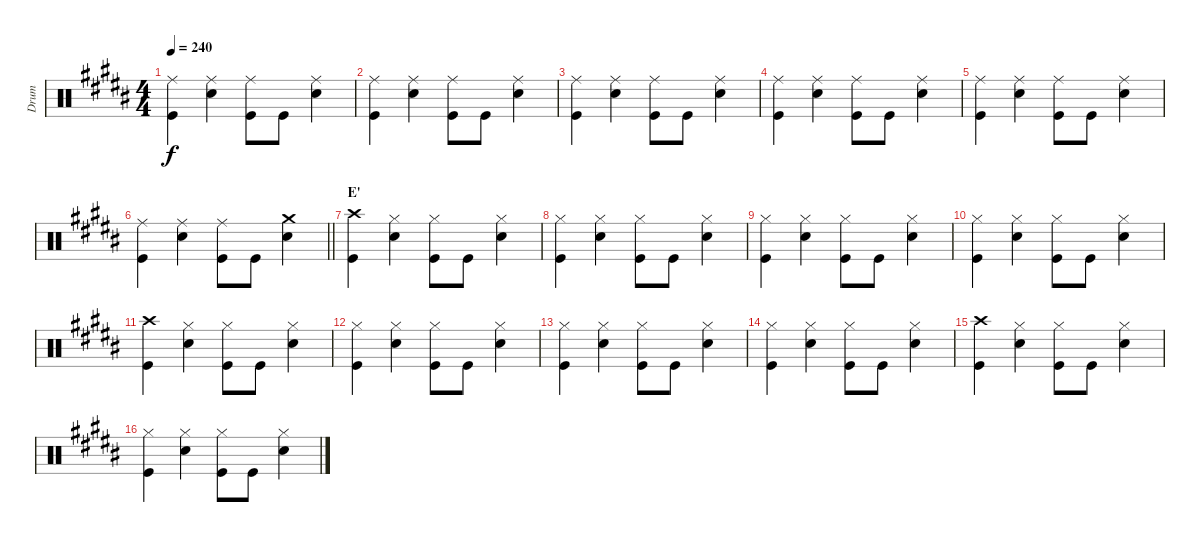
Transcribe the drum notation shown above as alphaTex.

\track ("Drum" "Drum") {instrument percussion}
\staff {score}
\articulation defaults
\ts (4 4)
\tempo 240
\clef neutral
\ks b
("Kick (hit)" "Ride (middle)").4{dy f} ("Ride (middle)" "Snare (hit) 2").4 ("Ride (middle)" "Kick (hit)").8 "Kick (hit)".8 ("Snare (hit) 2" "Ride (middle)").4 |
("Kick (hit)" "Ride (middle)").4 ("Ride (middle)" "Snare (hit) 2").4 ("Ride (middle)" "Kick (hit)").8 "Kick (hit)".8 ("Snare (hit) 2" "Ride (middle)").4 |
("Kick (hit)" "Ride (middle)").4 ("Ride (middle)" "Snare (hit) 2").4 ("Ride (middle)" "Kick (hit)").8 "Kick (hit)".8 ("Snare (hit) 2" "Ride (middle)").4 |
("Kick (hit)" "Ride (middle)").4 ("Ride (middle)" "Snare (hit) 2").4 ("Ride (middle)" "Kick (hit)").8 "Kick (hit)".8 ("Snare (hit) 2" "Ride (middle)").4 |
("Kick (hit)" "Ride (middle)").4 ("Ride (middle)" "Snare (hit) 2").4 ("Ride (middle)" "Kick (hit)").8 "Kick (hit)".8 ("Snare (hit) 2" "Ride (middle)").4 |
\barLineRight lightlight
("Kick (hit)" "Ride (middle)").4 ("Ride (middle)" "Snare (hit) 2").4 ("Ride (middle)" "Kick (hit)").8 "Kick (hit)".8 ("Snare (hit) 2" "Crash medium (hit)").4 |
\section ("" "E'")
("Kick (hit)" "Crash high (hit)").4 ("Hi-Hat (closed)" "Snare (hit) 2").4 ("Hi-Hat (closed)" "Kick (hit)").8 "Kick (hit)".8 ("Snare (hit) 2" "Hi-Hat (closed)").4 |
("Kick (hit)" "Hi-Hat (closed)").4 ("Hi-Hat (closed)" "Snare (hit) 2").4 ("Hi-Hat (closed)" "Kick (hit)").8 "Kick (hit)".8 ("Snare (hit) 2" "Hi-Hat (closed)").4 |
("Kick (hit)" "Hi-Hat (closed)").4 ("Hi-Hat (closed)" "Snare (hit) 2").4 ("Hi-Hat (closed)" "Kick (hit)").8 "Kick (hit)".8 ("Snare (hit) 2" "Hi-Hat (closed)").4 |
("Kick (hit)" "Hi-Hat (closed)").4 ("Hi-Hat (closed)" "Snare (hit) 2").4 ("Hi-Hat (closed)" "Kick (hit)").8 "Kick (hit)".8 ("Snare (hit) 2" "Hi-Hat (closed)").4 |
("Kick (hit)" "Crash high (hit)").4 ("Hi-Hat (closed)" "Snare (hit) 2").4 ("Hi-Hat (closed)" "Kick (hit)").8 "Kick (hit)".8 ("Snare (hit) 2" "Hi-Hat (closed)").4 |
("Kick (hit)" "Hi-Hat (closed)").4 ("Hi-Hat (closed)" "Snare (hit) 2").4 ("Hi-Hat (closed)" "Kick (hit)").8 "Kick (hit)".8 ("Snare (hit) 2" "Hi-Hat (closed)").4 |
("Kick (hit)" "Hi-Hat (closed)").4 ("Hi-Hat (closed)" "Snare (hit) 2").4 ("Hi-Hat (closed)" "Kick (hit)").8 "Kick (hit)".8 ("Snare (hit) 2" "Hi-Hat (closed)").4 |
("Kick (hit)" "Hi-Hat (closed)").4 ("Hi-Hat (closed)" "Snare (hit) 2").4 ("Hi-Hat (closed)" "Kick (hit)").8 "Kick (hit)".8 ("Snare (hit) 2" "Hi-Hat (closed)").4 |
("Kick (hit)" "Crash high (hit)").4 ("Hi-Hat (closed)" "Snare (hit) 2").4 ("Hi-Hat (closed)" "Kick (hit)").8 "Kick (hit)".8 ("Snare (hit) 2" "Hi-Hat (closed)").4 |
("Kick (hit)" "Hi-Hat (closed)").4 ("Hi-Hat (closed)" "Snare (hit) 2").4 ("Hi-Hat (closed)" "Kick (hit)").8 "Kick (hit)".8 ("Snare (hit) 2" "Hi-Hat (closed)").4
